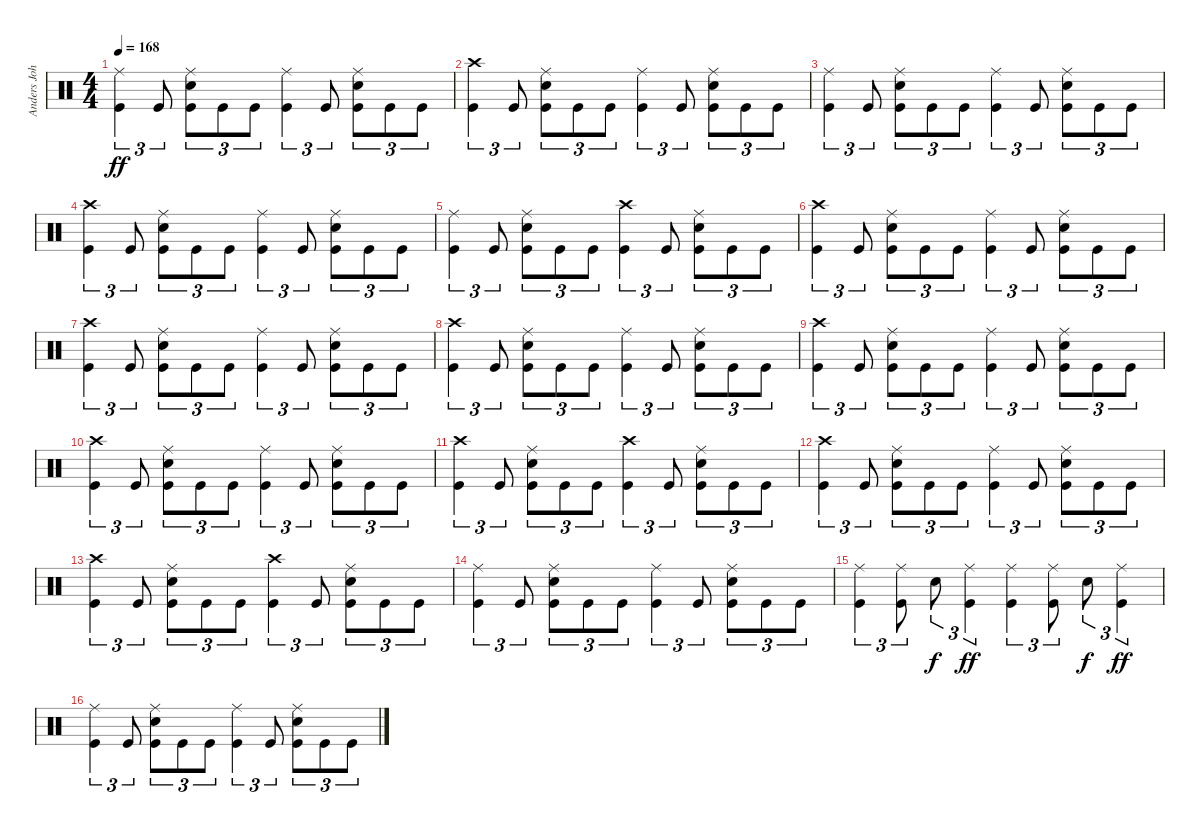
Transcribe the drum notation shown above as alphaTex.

\track ("Anders Johansson (Drums)" "Anders Joh") {instrument percussion}
\staff {score}
\articulation defaults
\ts (4 4)
\tempo 168
\clef neutral
\ks c
("Ride (middle)" "Kick (hit)").4{tu (3 2) dy ff} "Kick (hit)".8{tu (3 2)} ("Ride (middle)" "Electric Snare (hit)" "Kick (hit)").8{tu (3 2)} "Kick (hit)".8{tu (3 2)} "Kick (hit)".8{tu (3 2)} ("Ride (middle)" "Kick (hit)").4{tu (3 2)} "Kick (hit)".8{tu (3 2)} ("Ride (middle)" "Electric Snare (hit)" "Kick (hit)").8{tu (3 2)} "Kick (hit)".8{tu (3 2)} "Kick (hit)".8{tu (3 2)} |
("Crash high (hit)" "Kick (hit)").4{tu (3 2)} "Kick (hit)".8{tu (3 2)} ("Ride (middle)" "Electric Snare (hit)" "Kick (hit)").8{tu (3 2)} "Kick (hit)".8{tu (3 2)} "Kick (hit)".8{tu (3 2)} ("Ride (middle)" "Kick (hit)").4{tu (3 2)} "Kick (hit)".8{tu (3 2)} ("Ride (middle)" "Electric Snare (hit)" "Kick (hit)").8{tu (3 2)} "Kick (hit)".8{tu (3 2)} "Kick (hit)".8{tu (3 2)} |
("Ride (middle)" "Kick (hit)").4{tu (3 2)} "Kick (hit)".8{tu (3 2)} ("Ride (middle)" "Electric Snare (hit)" "Kick (hit)").8{tu (3 2)} "Kick (hit)".8{tu (3 2)} "Kick (hit)".8{tu (3 2)} ("Ride (middle)" "Kick (hit)").4{tu (3 2)} "Kick (hit)".8{tu (3 2)} ("Ride (middle)" "Electric Snare (hit)" "Kick (hit)").8{tu (3 2)} "Kick (hit)".8{tu (3 2)} "Kick (hit)".8{tu (3 2)} |
("Crash high (hit)" "Kick (hit)").4{tu (3 2)} "Kick (hit)".8{tu (3 2)} ("Ride (middle)" "Electric Snare (hit)" "Kick (hit)").8{tu (3 2)} "Kick (hit)".8{tu (3 2)} "Kick (hit)".8{tu (3 2)} ("Ride (middle)" "Kick (hit)").4{tu (3 2)} "Kick (hit)".8{tu (3 2)} ("Ride (middle)" "Electric Snare (hit)" "Kick (hit)").8{tu (3 2)} "Kick (hit)".8{tu (3 2)} "Kick (hit)".8{tu (3 2)} |
("Ride (middle)" "Kick (hit)").4{tu (3 2)} "Kick (hit)".8{tu (3 2)} ("Ride (middle)" "Electric Snare (hit)" "Kick (hit)").8{tu (3 2)} "Kick (hit)".8{tu (3 2)} "Kick (hit)".8{tu (3 2)} ("Crash high (hit)" "Kick (hit)").4{tu (3 2)} "Kick (hit)".8{tu (3 2)} ("Ride (middle)" "Electric Snare (hit)" "Kick (hit)").8{tu (3 2)} "Kick (hit)".8{tu (3 2)} "Kick (hit)".8{tu (3 2)} |
("Crash high (hit)" "Kick (hit)").4{tu (3 2)} "Kick (hit)".8{tu (3 2)} ("Ride (middle)" "Electric Snare (hit)" "Kick (hit)").8{tu (3 2)} "Kick (hit)".8{tu (3 2)} "Kick (hit)".8{tu (3 2)} ("Ride (middle)" "Kick (hit)").4{tu (3 2)} "Kick (hit)".8{tu (3 2)} ("Ride (middle)" "Electric Snare (hit)" "Kick (hit)").8{tu (3 2)} "Kick (hit)".8{tu (3 2)} "Kick (hit)".8{tu (3 2)} |
("Crash high (hit)" "Kick (hit)").4{tu (3 2)} "Kick (hit)".8{tu (3 2)} ("Ride (middle)" "Electric Snare (hit)" "Kick (hit)").8{tu (3 2)} "Kick (hit)".8{tu (3 2)} "Kick (hit)".8{tu (3 2)} ("Ride (middle)" "Kick (hit)").4{tu (3 2)} "Kick (hit)".8{tu (3 2)} ("Ride (middle)" "Electric Snare (hit)" "Kick (hit)").8{tu (3 2)} "Kick (hit)".8{tu (3 2)} "Kick (hit)".8{tu (3 2)} |
("Crash high (hit)" "Kick (hit)").4{tu (3 2)} "Kick (hit)".8{tu (3 2)} ("Ride (middle)" "Electric Snare (hit)" "Kick (hit)").8{tu (3 2)} "Kick (hit)".8{tu (3 2)} "Kick (hit)".8{tu (3 2)} ("Ride (middle)" "Kick (hit)").4{tu (3 2)} "Kick (hit)".8{tu (3 2)} ("Ride (middle)" "Electric Snare (hit)" "Kick (hit)").8{tu (3 2)} "Kick (hit)".8{tu (3 2)} "Kick (hit)".8{tu (3 2)} |
("Crash high (hit)" "Kick (hit)").4{tu (3 2)} "Kick (hit)".8{tu (3 2)} ("Ride (middle)" "Electric Snare (hit)" "Kick (hit)").8{tu (3 2)} "Kick (hit)".8{tu (3 2)} "Kick (hit)".8{tu (3 2)} ("Ride (middle)" "Kick (hit)").4{tu (3 2)} "Kick (hit)".8{tu (3 2)} ("Ride (middle)" "Electric Snare (hit)" "Kick (hit)").8{tu (3 2)} "Kick (hit)".8{tu (3 2)} "Kick (hit)".8{tu (3 2)} |
("Crash high (hit)" "Kick (hit)").4{tu (3 2)} "Kick (hit)".8{tu (3 2)} ("Ride (middle)" "Electric Snare (hit)" "Kick (hit)").8{tu (3 2)} "Kick (hit)".8{tu (3 2)} "Kick (hit)".8{tu (3 2)} ("Ride (middle)" "Kick (hit)").4{tu (3 2)} "Kick (hit)".8{tu (3 2)} ("Ride (middle)" "Electric Snare (hit)" "Kick (hit)").8{tu (3 2)} "Kick (hit)".8{tu (3 2)} "Kick (hit)".8{tu (3 2)} |
("Crash high (hit)" "Kick (hit)").4{tu (3 2)} "Kick (hit)".8{tu (3 2)} ("Ride (middle)" "Electric Snare (hit)" "Kick (hit)").8{tu (3 2)} "Kick (hit)".8{tu (3 2)} "Kick (hit)".8{tu (3 2)} ("Crash high (hit)" "Kick (hit)").4{tu (3 2)} "Kick (hit)".8{tu (3 2)} ("Ride (middle)" "Electric Snare (hit)" "Kick (hit)").8{tu (3 2)} "Kick (hit)".8{tu (3 2)} "Kick (hit)".8{tu (3 2)} |
("Crash high (hit)" "Kick (hit)").4{tu (3 2)} "Kick (hit)".8{tu (3 2)} ("Ride (middle)" "Electric Snare (hit)" "Kick (hit)").8{tu (3 2)} "Kick (hit)".8{tu (3 2)} "Kick (hit)".8{tu (3 2)} ("Ride (middle)" "Kick (hit)").4{tu (3 2)} "Kick (hit)".8{tu (3 2)} ("Ride (middle)" "Electric Snare (hit)" "Kick (hit)").8{tu (3 2)} "Kick (hit)".8{tu (3 2)} "Kick (hit)".8{tu (3 2)} |
("Crash high (hit)" "Kick (hit)").4{tu (3 2)} "Kick (hit)".8{tu (3 2)} ("Ride (middle)" "Electric Snare (hit)" "Kick (hit)").8{tu (3 2)} "Kick (hit)".8{tu (3 2)} "Kick (hit)".8{tu (3 2)} ("Crash high (hit)" "Kick (hit)").4{tu (3 2)} "Kick (hit)".8{tu (3 2)} ("Ride (middle)" "Electric Snare (hit)" "Kick (hit)").8{tu (3 2)} "Kick (hit)".8{tu (3 2)} "Kick (hit)".8{tu (3 2)} |
("Ride (middle)" "Kick (hit)").4{tu (3 2)} "Kick (hit)".8{tu (3 2)} ("Ride (middle)" "Electric Snare (hit)" "Kick (hit)").8{tu (3 2)} "Kick (hit)".8{tu (3 2)} "Kick (hit)".8{tu (3 2)} ("Ride (middle)" "Kick (hit)").4{tu (3 2)} "Kick (hit)".8{tu (3 2)} ("Ride (middle)" "Electric Snare (hit)" "Kick (hit)").8{tu (3 2)} "Kick (hit)".8{tu (3 2)} "Kick (hit)".8{tu (3 2)} |
("Ride (middle)" "Kick (hit)").4{tu (3 2)} ("Ride (middle)" "Kick (hit)").8{tu (3 2)} "Electric Snare (hit)".8{tu (3 2) dy f} ("Ride (middle)" "Kick (hit)").4{tu (3 2) dy ff} ("Ride (middle)" "Kick (hit)").4{tu (3 2)} ("Ride (middle)" "Kick (hit)").8{tu (3 2)} "Electric Snare (hit)".8{tu (3 2) dy f} ("Ride (middle)" "Kick (hit)").4{tu (3 2) dy ff} |
("Ride (middle)" "Kick (hit)").4{tu (3 2)} "Kick (hit)".8{tu (3 2)} ("Ride (middle)" "Electric Snare (hit)" "Kick (hit)").8{tu (3 2)} "Kick (hit)".8{tu (3 2)} "Kick (hit)".8{tu (3 2)} ("Ride (middle)" "Kick (hit)").4{tu (3 2)} "Kick (hit)".8{tu (3 2)} ("Ride (middle)" "Electric Snare (hit)" "Kick (hit)").8{tu (3 2)} "Kick (hit)".8{tu (3 2)} "Kick (hit)".8{tu (3 2)}
